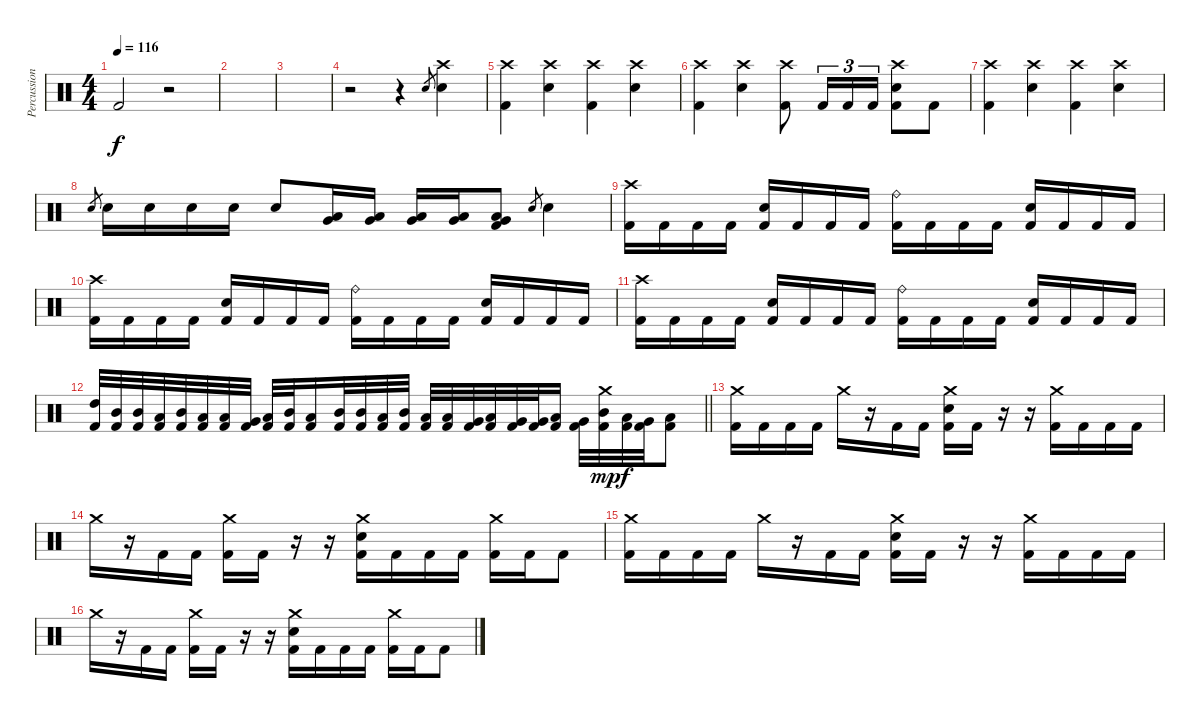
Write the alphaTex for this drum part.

\track ("Percussion (Moose)" "Percussion") {instrument percussion}
\staff {score}
\articulation defaults
\ts (4 4)
\tempo 116
\clef neutral
\ks c "Kick (hit) 2".2{dy f volume 14}
r.2 |
|
|
r.2 r.4 "Snare (hit) 2".8{gr} ("Snare (hit) 2" "Crash high (hit)").4 |
("Kick (hit) 2" "Crash high (hit)").4 ("Snare (hit) 2" "Crash high (hit)").4 ("Kick (hit) 2" "Crash high (hit)").4 ("Snare (hit) 2" "Crash high (hit)").4 |
("Kick (hit) 2" "Crash high (hit)").4 ("Snare (hit) 2" "Crash high (hit)").4 ("Kick (hit) 2" "Crash high (hit)").8 "Kick (hit) 2".16{tu (3 2)} "Kick (hit) 2".16{tu (3 2)} "Kick (hit) 2".16{tu (3 2)} ("Kick (hit) 2" "Snare (hit) 2" "Crash high (hit)").8 "Kick (hit) 2".8 |
("Kick (hit) 2" "Crash high (hit)").4 ("Snare (hit) 2" "Crash high (hit)").4 ("Kick (hit) 2" "Crash high (hit)").4 ("Snare (hit) 2" "Crash high (hit)").4 |
"Snare (hit) 2".8{gr} "Snare (hit) 2".16 "Snare (hit) 2".16 "Snare (hit) 2".16 "Snare (hit) 2".16 "Snare (hit) 2".8 ("Low Tom (hit)" "Very Low Tom (hit)").16 ("Low Tom (hit)" "Very Low Tom (hit)").16 ("Low Tom (hit)" "Very Low Tom (hit)").16 ("Low Tom (hit)" "Very Low Tom (hit)").16 ("Kick (hit) 2" "Very Low Tom (hit)" "Low Floor Tom (hit)").8 "Snare (hit) 2".8{gr} "Snare (hit) 2".4 |
("Kick (hit) 2" "Crash high (hit)").16 "Kick (hit) 2".16 "Kick (hit) 2".16 "Kick (hit) 2".16 ("Kick (hit) 2" "Snare (hit) 2").16 "Kick (hit) 2".16 "Kick (hit) 2".16 "Kick (hit) 2".16 ("Kick (hit) 2" "Ride (bell)").16 "Kick (hit) 2".16 "Kick (hit) 2".16 "Kick (hit) 2".16 ("Kick (hit) 2" "Snare (hit) 2").16 "Kick (hit) 2".16 "Kick (hit) 2".16 "Kick (hit) 2".16 |
("Kick (hit) 2" "Crash high (hit)").16 "Kick (hit) 2".16 "Kick (hit) 2".16 "Kick (hit) 2".16 ("Kick (hit) 2" "Snare (hit) 2").16 "Kick (hit) 2".16 "Kick (hit) 2".16 "Kick (hit) 2".16 ("Kick (hit) 2" "Ride (bell)").16 "Kick (hit) 2".16 "Kick (hit) 2".16 "Kick (hit) 2".16 ("Kick (hit) 2" "Snare (hit) 2").16 "Kick (hit) 2".16 "Kick (hit) 2".16 "Kick (hit) 2".16 |
("Kick (hit) 2" "Crash high (hit)").16 "Kick (hit) 2".16 "Kick (hit) 2".16 "Kick (hit) 2".16 ("Kick (hit) 2" "Snare (hit) 2").16 "Kick (hit) 2".16 "Kick (hit) 2".16 "Kick (hit) 2".16 ("Kick (hit) 2" "Ride (bell)").16 "Kick (hit) 2".16 "Kick (hit) 2".16 "Kick (hit) 2".16 ("Kick (hit) 2" "Snare (hit) 2").16 "Kick (hit) 2".16 "Kick (hit) 2".16 "Kick (hit) 2".16 |
\barLineRight lightlight
("Kick (hit) 2" "High Tom (hit)").32 ("Kick (hit) 2" "Mid Tom (hit)").32 ("Kick (hit) 2" "Mid Tom (hit)").32 ("Kick (hit) 2" "Low Tom (hit)").32 ("Kick (hit) 2" "Mid Tom (hit)").32 ("Kick (hit) 2" "Low Tom (hit)").32 ("Kick (hit) 2" "Low Tom (hit)").32 ("Kick (hit) 2" "Very Low Tom (hit)").32 ("Kick (hit) 2" "Low Tom (hit)").32 ("Kick (hit) 2" "Mid Tom (hit)").32 ("Kick (hit) 2" "Low Tom (hit)").16 ("Kick (hit) 2" "Mid Tom (hit)").32 ("Kick (hit) 2" "Mid Tom (hit)").32 ("Kick (hit) 2" "Low Tom (hit)").32 ("Kick (hit) 2" "Mid Tom (hit)").32 ("Kick (hit) 2" "Low Tom (hit)").32 ("Kick (hit) 2" "Low Tom (hit)").32 ("Kick (hit) 2" "Very Low Tom (hit)").32 ("Kick (hit) 2" "Low Tom (hit)").32 ("Kick (hit) 2" "Very Low Tom (hit)").32 ("Kick (hit) 2" "Very Low Tom (hit)").32 ("Kick (hit) 2" "Low Floor Tom (hit)").16 ("Kick (hit) 2" "Very Low Tom (hit)").32 ("Kick (hit) 2" "Mid Tom (hit)" "Crash medium (hit)").32{dy mp} ("Kick (hit) 2" "Low Tom (hit)").32{dy f} ("Kick (hit) 2" "Very Low Tom (hit)").32 ("Kick (hit) 2" "Low Floor Tom (hit)").8 |
("Kick (hit) 2" "Crash medium (hit)").16 "Kick (hit) 2".16 "Kick (hit) 2".16 "Kick (hit) 2".16 "Crash medium (hit)".16 r.16 "Kick (hit) 2".16 "Kick (hit) 2".16 ("Kick (hit) 2" "Snare (hit) 2" "Crash medium (hit)").16 "Kick (hit) 2".16 r.16 r.16 ("Kick (hit) 2" "Crash medium (hit)").16 "Kick (hit) 2".16 "Kick (hit) 2".16 "Kick (hit) 2".16 |
"Crash medium (hit)".16 r.16 "Kick (hit) 2".16 "Kick (hit) 2".16 ("Kick (hit) 2" "Crash medium (hit)").16 "Kick (hit) 2".16 r.16 r.16 ("Kick (hit) 2" "Snare (hit) 2" "Crash medium (hit)").16 "Kick (hit) 2".16 "Kick (hit) 2".16 "Kick (hit) 2".16 ("Kick (hit) 2" "Crash medium (hit)").16 "Kick (hit) 2".16 "Kick (hit) 2".8 |
("Kick (hit) 2" "Crash medium (hit)").16 "Kick (hit) 2".16 "Kick (hit) 2".16 "Kick (hit) 2".16 "Crash medium (hit)".16 r.16 "Kick (hit) 2".16 "Kick (hit) 2".16 ("Kick (hit) 2" "Snare (hit) 2" "Crash medium (hit)").16 "Kick (hit) 2".16 r.16 r.16 ("Kick (hit) 2" "Crash medium (hit)").16 "Kick (hit) 2".16 "Kick (hit) 2".16 "Kick (hit) 2".16 |
"Crash medium (hit)".16 r.16 "Kick (hit) 2".16 "Kick (hit) 2".16 ("Kick (hit) 2" "Crash medium (hit)").16 "Kick (hit) 2".16 r.16 r.16 ("Kick (hit) 2" "Snare (hit) 2" "Crash medium (hit)").16 "Kick (hit) 2".16 "Kick (hit) 2".16 "Kick (hit) 2".16 ("Kick (hit) 2" "Crash medium (hit)").16 "Kick (hit) 2".16 "Kick (hit) 2".8
